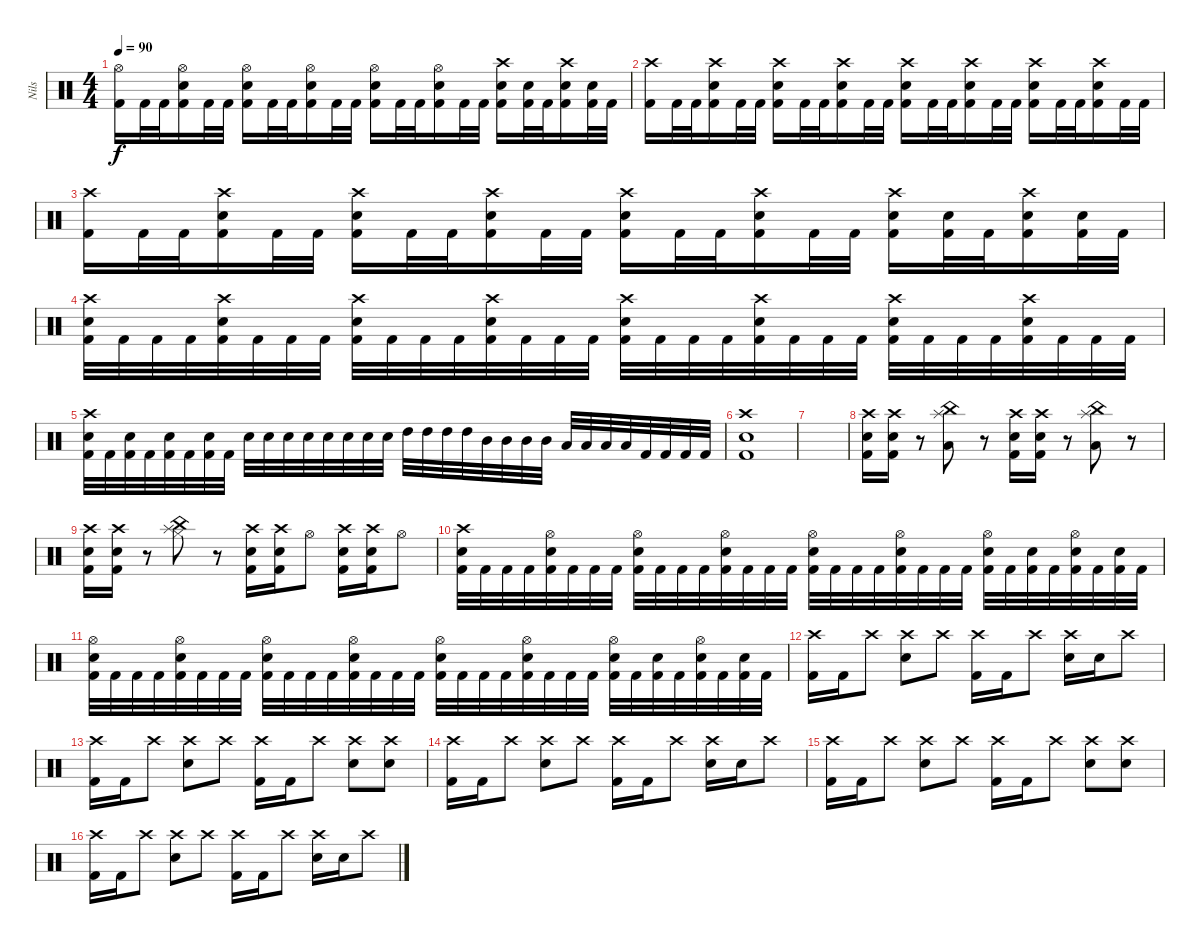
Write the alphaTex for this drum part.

\track ("Nils" "Nils") {instrument percussion}
\staff {score}
\articulation defaults
\ts (4 4)
\tempo 90
\clef neutral
\ks c
("Hi-Hat (open)" "Kick (hit) 2").16{dy f} "Kick (hit) 2".32 "Kick (hit) 2".32 ("Hi-Hat (open)" "Snare (hit) 2" "Kick (hit) 2").16 "Kick (hit) 2".32 "Kick (hit) 2".32 ("Hi-Hat (open)" "Snare (hit) 2" "Kick (hit) 2").16 "Kick (hit) 2".32 "Kick (hit) 2".32 ("Hi-Hat (open)" "Snare (hit) 2" "Kick (hit) 2").16 "Kick (hit) 2".32 "Kick (hit) 2".32 ("Hi-Hat (open)" "Snare (hit) 2" "Kick (hit) 2").16 "Kick (hit) 2".32 "Kick (hit) 2".32 ("Hi-Hat (open)" "Snare (hit) 2" "Kick (hit) 2").16 "Kick (hit) 2".32 "Kick (hit) 2".32 ("Crash high (hit)" "Snare (hit) 2" "Kick (hit) 2").16 ("Snare (hit) 2" "Kick (hit) 2").32 "Kick (hit) 2".32 ("Crash high (hit)" "Snare (hit) 2" "Kick (hit) 2").16 ("Snare (hit) 2" "Kick (hit) 2").32 "Kick (hit) 2".32 |
("Crash high (hit)" "Kick (hit) 2").16 "Kick (hit) 2".32 "Kick (hit) 2".32 ("Crash high (hit)" "Snare (hit) 2" "Kick (hit) 2").16 "Kick (hit) 2".32 "Kick (hit) 2".32 ("Crash high (hit)" "Snare (hit) 2" "Kick (hit) 2").16 "Kick (hit) 2".32 "Kick (hit) 2".32 ("Crash high (hit)" "Snare (hit) 2" "Kick (hit) 2").16 "Kick (hit) 2".32 "Kick (hit) 2".32 ("Crash high (hit)" "Snare (hit) 2" "Kick (hit) 2").16 "Kick (hit) 2".32 "Kick (hit) 2".32 ("Crash high (hit)" "Snare (hit) 2" "Kick (hit) 2").16 "Kick (hit) 2".32 "Kick (hit) 2".32 ("Crash high (hit)" "Snare (hit) 2" "Kick (hit) 2").16 "Kick (hit) 2".32 "Kick (hit) 2".32 ("Crash high (hit)" "Snare (hit) 2" "Kick (hit) 2").16 "Kick (hit) 2".32 "Kick (hit) 2".32 |
("Crash high (hit)" "Kick (hit) 2").16 "Kick (hit) 2".32 "Kick (hit) 2".32 ("Crash high (hit)" "Snare (hit) 2" "Kick (hit) 2").16 "Kick (hit) 2".32 "Kick (hit) 2".32 ("Crash high (hit)" "Snare (hit) 2" "Kick (hit) 2").16 "Kick (hit) 2".32 "Kick (hit) 2".32 ("Crash high (hit)" "Snare (hit) 2" "Kick (hit) 2").16 "Kick (hit) 2".32 "Kick (hit) 2".32 ("Crash high (hit)" "Snare (hit) 2" "Kick (hit) 2").16 "Kick (hit) 2".32 "Kick (hit) 2".32 ("Crash high (hit)" "Snare (hit) 2" "Kick (hit) 2").16 "Kick (hit) 2".32 "Kick (hit) 2".32 ("Crash high (hit)" "Snare (hit) 2" "Kick (hit) 2").16 ("Snare (hit) 2" "Kick (hit) 2").32 "Kick (hit) 2".32 ("Crash high (hit)" "Snare (hit) 2" "Kick (hit) 2").16 ("Snare (hit) 2" "Kick (hit) 2").32 "Kick (hit) 2".32 |
("Crash high (hit)" "Snare (hit) 2" "Kick (hit) 2").32 "Kick (hit) 2".32 "Kick (hit) 2".32 "Kick (hit) 2".32 ("Crash high (hit)" "Snare (hit) 2" "Kick (hit) 2").32 "Kick (hit) 2".32 "Kick (hit) 2".32 "Kick (hit) 2".32 ("Crash high (hit)" "Snare (hit) 2" "Kick (hit) 2").32 "Kick (hit) 2".32 "Kick (hit) 2".32 "Kick (hit) 2".32 ("Crash high (hit)" "Snare (hit) 2" "Kick (hit) 2").32 "Kick (hit) 2".32 "Kick (hit) 2".32 "Kick (hit) 2".32 ("Crash high (hit)" "Snare (hit) 2" "Kick (hit) 2").32 "Kick (hit) 2".32 "Kick (hit) 2".32 "Kick (hit) 2".32 ("Crash high (hit)" "Snare (hit) 2" "Kick (hit) 2").32 "Kick (hit) 2".32 "Kick (hit) 2".32 "Kick (hit) 2".32 ("Crash high (hit)" "Snare (hit) 2" "Kick (hit) 2").32 "Kick (hit) 2".32 "Kick (hit) 2".32 "Kick (hit) 2".32 ("Crash high (hit)" "Snare (hit) 2" "Kick (hit) 2").32 "Kick (hit) 2".32 "Kick (hit) 2".32 "Kick (hit) 2".32 |
("Crash high (hit)" "Snare (hit) 2" "Kick (hit) 2").32 "Kick (hit) 2".32 ("Snare (hit) 2" "Kick (hit) 2").32 "Kick (hit) 2".32 ("Snare (hit) 2" "Kick (hit) 2").32 "Kick (hit) 2".32 ("Snare (hit) 2" "Kick (hit) 2").32 "Kick (hit) 2".32 "Snare (hit) 2".32 "Snare (hit) 2".32 "Snare (hit) 2".32 "Snare (hit) 2".32 "Snare (hit) 2".32 "Snare (hit) 2".32 "Snare (hit) 2".32 "Snare (hit) 2".32 "High Tom (hit)".32 "High Tom (hit)".32 "High Tom (hit)".32 "High Tom (hit)".32 "Mid Tom (hit)".32 "Mid Tom (hit)".32 "Mid Tom (hit)".32 "Mid Tom (hit)".32 "Low Tom (hit)".32 "Low Tom (hit)".32 "Low Tom (hit)".32 "Low Tom (hit)".32 "Kick (hit) 2".32 "Kick (hit) 2".32 "Kick (hit) 2".32 "Kick (hit) 2".32 |
("Crash high (hit)" "Snare (hit) 2" "Kick (hit) 2").1 |
|
("Crash high (hit)" "Snare (hit) 2" "Kick (hit) 2").16 ("Crash high (hit)" "Snare (hit) 2" "Kick (hit) 2").16 r.8 ("Splash (hit)" "China (hit)" "Low Tom (hit)").8 r.8 ("Crash high (hit)" "Snare (hit) 2" "Kick (hit) 2").16 ("Crash high (hit)" "Snare (hit) 2" "Kick (hit) 2").16 r.8 ("Splash (hit)" "China (hit)" "Low Tom (hit)").8 r.8 |
("Crash high (hit)" "Snare (hit) 2" "Kick (hit) 2").16 ("Crash high (hit)" "Snare (hit) 2" "Kick (hit) 2").16 r.8 ("Splash (hit)" "China (hit)" "Hi-Hat (closed)").8 r.8 ("Crash high (hit)" "Snare (hit) 2" "Kick (hit) 2").16 ("Crash high (hit)" "Snare (hit) 2" "Kick (hit) 2").16 "Hi-Hat (open)".8 ("Crash high (hit)" "Snare (hit) 2" "Kick (hit) 2").16 ("Crash high (hit)" "Snare (hit) 2" "Kick (hit) 2").16 "Hi-Hat (open)".8 |
("Crash high (hit)" "Snare (hit) 2" "Kick (hit) 2").32 "Kick (hit) 2".32 "Kick (hit) 2".32 "Kick (hit) 2".32 ("Hi-Hat (open)" "Snare (hit) 2" "Kick (hit) 2").32 "Kick (hit) 2".32 "Kick (hit) 2".32 "Kick (hit) 2".32 ("Hi-Hat (open)" "Snare (hit) 2" "Kick (hit) 2").32 "Kick (hit) 2".32 "Kick (hit) 2".32 "Kick (hit) 2".32 ("Hi-Hat (open)" "Snare (hit) 2" "Kick (hit) 2").32 "Kick (hit) 2".32 "Kick (hit) 2".32 "Kick (hit) 2".32 ("Hi-Hat (open)" "Snare (hit) 2" "Kick (hit) 2").32 "Kick (hit) 2".32 "Kick (hit) 2".32 "Kick (hit) 2".32 ("Hi-Hat (open)" "Snare (hit) 2" "Kick (hit) 2").32 "Kick (hit) 2".32 "Kick (hit) 2".32 "Kick (hit) 2".32 ("Hi-Hat (open)" "Snare (hit) 2" "Kick (hit) 2").32 "Kick (hit) 2".32 ("Snare (hit) 2" "Kick (hit) 2").32 "Kick (hit) 2".32 ("Hi-Hat (open)" "Snare (hit) 2" "Kick (hit) 2").32 "Kick (hit) 2".32 ("Snare (hit) 2" "Kick (hit) 2").32 "Kick (hit) 2".32 |
("Hi-Hat (open)" "Snare (hit) 2" "Kick (hit) 2").32 "Kick (hit) 2".32 "Kick (hit) 2".32 "Kick (hit) 2".32 ("Hi-Hat (open)" "Snare (hit) 2" "Kick (hit) 2").32 "Kick (hit) 2".32 "Kick (hit) 2".32 "Kick (hit) 2".32 ("Hi-Hat (open)" "Snare (hit) 2" "Kick (hit) 2").32 "Kick (hit) 2".32 "Kick (hit) 2".32 "Kick (hit) 2".32 ("Hi-Hat (open)" "Snare (hit) 2" "Kick (hit) 2").32 "Kick (hit) 2".32 "Kick (hit) 2".32 "Kick (hit) 2".32 ("Hi-Hat (open)" "Snare (hit) 2" "Kick (hit) 2").32 "Kick (hit) 2".32 "Kick (hit) 2".32 "Kick (hit) 2".32 ("Hi-Hat (open)" "Snare (hit) 2" "Kick (hit) 2").32 "Kick (hit) 2".32 "Kick (hit) 2".32 "Kick (hit) 2".32 ("Hi-Hat (open)" "Snare (hit) 2" "Kick (hit) 2").32 "Kick (hit) 2".32 ("Snare (hit) 2" "Kick (hit) 2").32 "Kick (hit) 2".32 ("Hi-Hat (open)" "Snare (hit) 2" "Kick (hit) 2").32 "Kick (hit) 2".32 ("Snare (hit) 2" "Kick (hit) 2").32 "Kick (hit) 2".32 |
("Crash high (hit)" "Kick (hit) 2").16 "Kick (hit) 2".16 "Crash high (hit)".8 ("Crash high (hit)" "Snare (hit) 2").8 "Crash high (hit)".8 ("Crash high (hit)" "Kick (hit) 2").16 "Kick (hit) 2".16 "Crash high (hit)".8 ("Crash high (hit)" "Snare (hit) 2").16 "Snare (hit) 2".16 "Crash high (hit)".8 |
("Crash high (hit)" "Kick (hit) 2").16 "Kick (hit) 2".16 "Crash high (hit)".8 ("Crash high (hit)" "Snare (hit) 2").8 "Crash high (hit)".8 ("Crash high (hit)" "Kick (hit) 2").16 "Kick (hit) 2".16 "Crash high (hit)".8 ("Crash high (hit)" "Snare (hit) 2").8 ("Crash high (hit)" "Snare (hit) 2").8 |
("Crash high (hit)" "Kick (hit) 2").16 "Kick (hit) 2".16 "Crash high (hit)".8 ("Crash high (hit)" "Snare (hit) 2").8 "Crash high (hit)".8 ("Crash high (hit)" "Kick (hit) 2").16 "Kick (hit) 2".16 "Crash high (hit)".8 ("Crash high (hit)" "Snare (hit) 2").16 "Snare (hit) 2".16 "Crash high (hit)".8 |
("Crash high (hit)" "Kick (hit) 2").16 "Kick (hit) 2".16 "Crash high (hit)".8 ("Crash high (hit)" "Snare (hit) 2").8 "Crash high (hit)".8 ("Crash high (hit)" "Kick (hit) 2").16 "Kick (hit) 2".16 "Crash high (hit)".8 ("Crash high (hit)" "Snare (hit) 2").8 ("Crash high (hit)" "Snare (hit) 2").8 |
("Crash high (hit)" "Kick (hit) 2").16 "Kick (hit) 2".16 "Crash high (hit)".8 ("Crash high (hit)" "Snare (hit) 2").8 "Crash high (hit)".8 ("Crash high (hit)" "Kick (hit) 2").16 "Kick (hit) 2".16 "Crash high (hit)".8 ("Crash high (hit)" "Snare (hit) 2").16 "Snare (hit) 2".16 "Crash high (hit)".8
